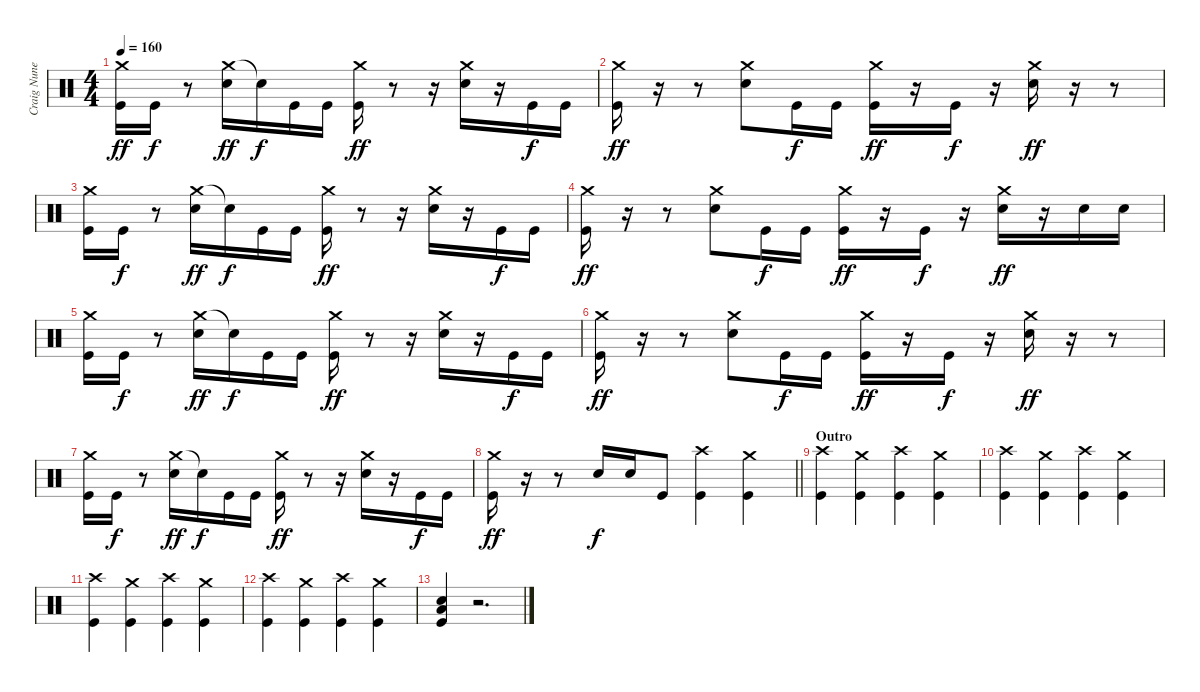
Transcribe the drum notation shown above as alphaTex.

\track ("Craig Nunenmacher" "Craig Nune") {instrument percussion}
\staff {score}
\articulation defaults
\ts (4 4)
\tempo 160
\clef neutral
\ks c
("Crash medium (hit)" "Kick (hit)").16{dy ff} "Kick (hit)".16{dy f} r.8 ("Crash medium (hit)" "Snare (hit) 2").16{dy ff} "Snare (hit)"{t}.16{dy f} "Kick (hit)".16 "Kick (hit)".16 ("Crash medium (hit)" "Kick (hit)").16{dy ff} r.8 r.16 ("Crash medium (hit)" "Snare (hit) 2").16 r.16 "Kick (hit)".16{dy f} "Kick (hit)".16 |
("Crash medium (hit)" "Kick (hit)").16{dy ff} r.16 r.8 ("Crash medium (hit)" "Snare (hit) 2").8 "Kick (hit)".16{dy f} "Kick (hit)".16 ("Crash medium (hit)" "Kick (hit)").16{dy ff} r.16 "Kick (hit)".16{dy f} r.16 ("Crash medium (hit)" "Snare (hit) 2").16{dy ff} r.16 r.8 |
("Crash medium (hit)" "Kick (hit)").16 "Kick (hit)".16{dy f} r.8 ("Crash medium (hit)" "Snare (hit) 2").16{dy ff} "Snare (hit)"{t}.16{dy f} "Kick (hit)".16 "Kick (hit)".16 ("Crash medium (hit)" "Kick (hit)").16{dy ff} r.8 r.16 ("Crash medium (hit)" "Snare (hit) 2").16 r.16 "Kick (hit)".16{dy f} "Kick (hit)".16 |
("Crash medium (hit)" "Kick (hit)").16{dy ff} r.16 r.8 ("Crash medium (hit)" "Snare (hit) 2").8 "Kick (hit)".16{dy f} "Kick (hit)".16 ("Crash medium (hit)" "Kick (hit)").16{dy ff} r.16 "Kick (hit)".16{dy f} r.16 ("Crash medium (hit)" "Snare (hit) 2").16{dy ff} r.16 "Snare (hit) 2".16 "Snare (hit) 2".16 |
("Crash medium (hit)" "Kick (hit)").16 "Kick (hit)".16{dy f} r.8 ("Crash medium (hit)" "Snare (hit) 2").16{dy ff} "Snare (hit)"{t}.16{dy f} "Kick (hit)".16 "Kick (hit)".16 ("Crash medium (hit)" "Kick (hit)").16{dy ff} r.8 r.16 ("Crash medium (hit)" "Snare (hit) 2").16 r.16 "Kick (hit)".16{dy f} "Kick (hit)".16 |
("Crash medium (hit)" "Kick (hit)").16{dy ff} r.16 r.8 ("Crash medium (hit)" "Snare (hit) 2").8 "Kick (hit)".16{dy f} "Kick (hit)".16 ("Crash medium (hit)" "Kick (hit)").16{dy ff} r.16 "Kick (hit)".16{dy f} r.16 ("Crash medium (hit)" "Snare (hit) 2").16{dy ff} r.16 r.8 |
("Crash medium (hit)" "Kick (hit)").16 "Kick (hit)".16{dy f} r.8 ("Crash medium (hit)" "Snare (hit) 2").16{dy ff} "Snare (hit)"{t}.16{dy f} "Kick (hit)".16 "Kick (hit)".16 ("Crash medium (hit)" "Kick (hit)").16{dy ff} r.8 r.16 ("Crash medium (hit)" "Snare (hit) 2").16 r.16 "Kick (hit)".16{dy f} "Kick (hit)".16 |
\barLineRight lightlight
("Crash medium (hit)" "Kick (hit)").16{dy ff} r.16 r.8 "Snare (hit) 2".16{dy f} "Snare (hit) 2".16 "Kick (hit)".8 ("Crash high (hit)" "Kick (hit)").4 ("Crash medium (hit)" "Kick (hit)").4 |
\section ("" "Outro")
("Crash high (hit)" "Kick (hit)").4 ("Crash medium (hit)" "Kick (hit)").4 ("Crash high (hit)" "Kick (hit)").4 ("Crash medium (hit)" "Kick (hit)").4 |
("Crash high (hit)" "Kick (hit)").4 ("Crash medium (hit)" "Kick (hit)").4 ("Crash high (hit)" "Kick (hit)").4 ("Crash medium (hit)" "Kick (hit)").4 |
("Crash high (hit)" "Kick (hit)").4 ("Crash medium (hit)" "Kick (hit)").4 ("Crash high (hit)" "Kick (hit)").4 ("Crash medium (hit)" "Kick (hit)").4 |
("Crash high (hit)" "Kick (hit)").4 ("Crash medium (hit)" "Kick (hit)").4 ("Crash high (hit)" "Kick (hit)").4 ("Crash medium (hit)" "Kick (hit)").4 |
("Snare (hit) 2" "Low Tom (hit)" "Kick (hit)").4 r.2{d}
